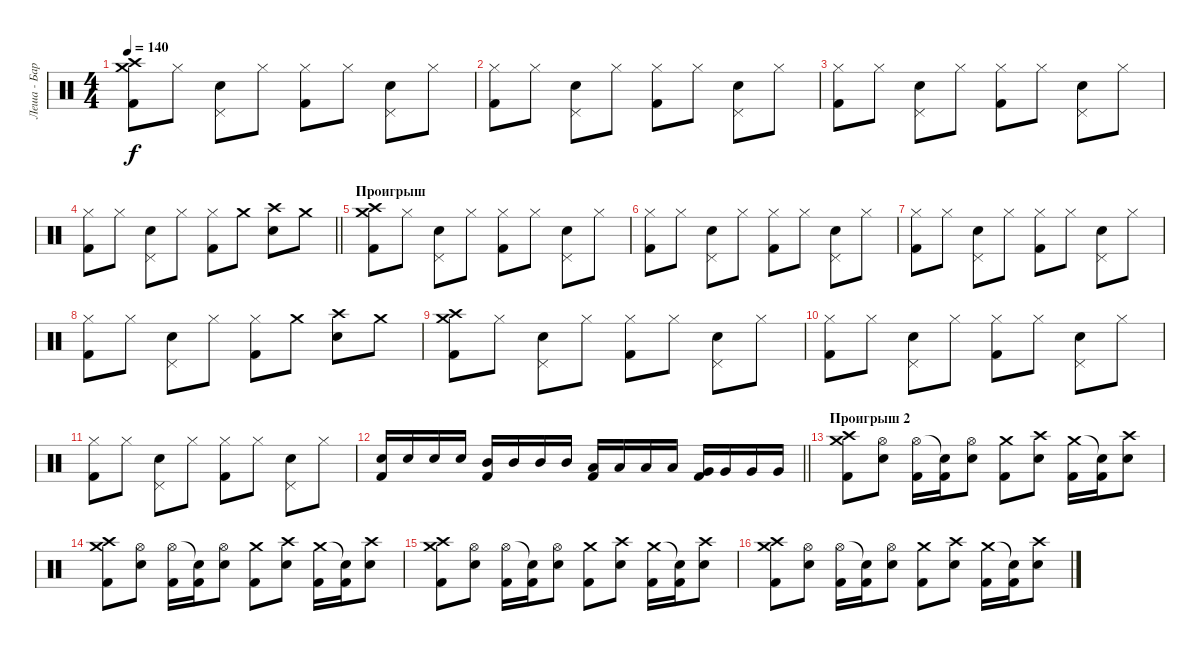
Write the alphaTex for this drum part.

\track ("Леша - Барабаны" "Леша - Бар") {instrument percussion}
\staff {score}
\articulation defaults
\ts (4 4)
\tempo 140
\clef neutral
\ks c
("Crash high (hit)" "Crash medium (hit)" "Kick (hit) 2").8{dy f} "Hi-Hat (closed)".8 ("Pedal Hi-Hat (hit)" "Snare (hit) 2").8 "Hi-Hat (closed)".8 ("Hi-Hat (closed)" "Kick (hit) 2").8 "Hi-Hat (closed)".8 ("Pedal Hi-Hat (hit)" "Snare (hit) 2").8 "Hi-Hat (closed)".8 |
("Hi-Hat (closed)" "Kick (hit) 2").8 "Hi-Hat (closed)".8 ("Pedal Hi-Hat (hit)" "Snare (hit) 2").8 "Hi-Hat (closed)".8 ("Hi-Hat (closed)" "Kick (hit) 2").8 "Hi-Hat (closed)".8 ("Pedal Hi-Hat (hit)" "Snare (hit) 2").8 "Hi-Hat (closed)".8 |
("Hi-Hat (closed)" "Kick (hit) 2").8 "Hi-Hat (closed)".8 ("Pedal Hi-Hat (hit)" "Snare (hit) 2").8 "Hi-Hat (closed)".8 ("Hi-Hat (closed)" "Kick (hit) 2").8 "Hi-Hat (closed)".8 ("Pedal Hi-Hat (hit)" "Snare (hit) 2").8 "Hi-Hat (closed)".8 |
\barLineRight lightlight
("Hi-Hat (closed)" "Kick (hit) 2").8 "Hi-Hat (closed)".8 ("Pedal Hi-Hat (hit)" "Snare (hit) 2").8 "Hi-Hat (closed)".8 ("Hi-Hat (closed)" "Kick (hit) 2").8 "Crash medium (hit)".8 ("Crash high (hit)" "Snare (hit) 2").8 "Crash medium (hit)".8 |
\section ("" "Проигрыш")
("Crash high (hit)" "Crash medium (hit)" "Kick (hit) 2").8 "Hi-Hat (closed)".8 ("Pedal Hi-Hat (hit)" "Snare (hit) 2").8 "Hi-Hat (closed)".8 ("Hi-Hat (closed)" "Kick (hit) 2").8 "Hi-Hat (closed)".8 ("Pedal Hi-Hat (hit)" "Snare (hit) 2").8 "Hi-Hat (closed)".8 |
("Hi-Hat (closed)" "Kick (hit) 2").8 "Hi-Hat (closed)".8 ("Pedal Hi-Hat (hit)" "Snare (hit) 2").8 "Hi-Hat (closed)".8 ("Hi-Hat (closed)" "Kick (hit) 2").8 "Hi-Hat (closed)".8 ("Pedal Hi-Hat (hit)" "Snare (hit) 2").8 "Hi-Hat (closed)".8 |
("Hi-Hat (closed)" "Kick (hit) 2").8 "Hi-Hat (closed)".8 ("Pedal Hi-Hat (hit)" "Snare (hit) 2").8 "Hi-Hat (closed)".8 ("Hi-Hat (closed)" "Kick (hit) 2").8 "Hi-Hat (closed)".8 ("Pedal Hi-Hat (hit)" "Snare (hit) 2").8 "Hi-Hat (closed)".8 |
("Hi-Hat (closed)" "Kick (hit) 2").8 "Hi-Hat (closed)".8 ("Pedal Hi-Hat (hit)" "Snare (hit) 2").8 "Hi-Hat (closed)".8 ("Hi-Hat (closed)" "Kick (hit) 2").8 "Crash medium (hit)".8 ("Crash high (hit)" "Snare (hit) 2").8 "Crash medium (hit)".8 |
("Crash high (hit)" "Crash medium (hit)" "Kick (hit) 2").8 "Hi-Hat (closed)".8 ("Pedal Hi-Hat (hit)" "Snare (hit) 2").8 "Hi-Hat (closed)".8 ("Hi-Hat (closed)" "Kick (hit) 2").8 "Hi-Hat (closed)".8 ("Pedal Hi-Hat (hit)" "Snare (hit) 2").8 "Hi-Hat (closed)".8 |
("Hi-Hat (closed)" "Kick (hit) 2").8 "Hi-Hat (closed)".8 ("Pedal Hi-Hat (hit)" "Snare (hit) 2").8 "Hi-Hat (closed)".8 ("Hi-Hat (closed)" "Kick (hit) 2").8 "Hi-Hat (closed)".8 ("Pedal Hi-Hat (hit)" "Snare (hit) 2").8 "Hi-Hat (closed)".8 |
("Hi-Hat (closed)" "Kick (hit) 2").8 "Hi-Hat (closed)".8 ("Pedal Hi-Hat (hit)" "Snare (hit) 2").8 "Hi-Hat (closed)".8 ("Hi-Hat (closed)" "Kick (hit) 2").8 "Hi-Hat (closed)".8 ("Pedal Hi-Hat (hit)" "Snare (hit) 2").8 "Hi-Hat (closed)".8 |
\barLineRight lightlight
("Snare (hit) 2" "Kick (hit) 2").16 "Snare (hit) 2".16 "Snare (hit) 2".16 "Snare (hit) 2".16 ("Mid Tom (hit)" "Kick (hit) 2").16 "Mid Tom (hit)".16 "Mid Tom (hit)".16 "Mid Tom (hit)".16 ("Low Tom (hit)" "Kick (hit) 2").16 "Low Tom (hit)".16 "Low Tom (hit)".16 "Low Tom (hit)".16 ("Very Low Tom (hit)" "Kick (hit) 2").16 "Very Low Tom (hit)".16 "Very Low Tom (hit)".16 "Very Low Tom (hit)".16 |
\section ("" "Проигрыш 2")
("Crash medium (hit)" "Crash high (hit)" "Kick (hit) 2").8 ("Hi-Hat (open)" "Snare (hit) 2").8 ("Hi-Hat (open)" "Kick (hit) 2").16 ("Snare (hit)"{t} "Kick (hit) 2").16 ("Hi-Hat (open)" "Snare (hit) 2").8 ("Crash medium (hit)" "Kick (hit) 2").8 ("Crash high (hit)" "Snare (hit) 2").8 ("Crash medium (hit)" "Kick (hit) 2").16 ("Snare (hit)"{t} "Kick (hit) 2").16 ("Crash high (hit)" "Snare (hit) 2").8 |
("Crash medium (hit)" "Crash high (hit)" "Kick (hit) 2").8 ("Hi-Hat (open)" "Snare (hit) 2").8 ("Hi-Hat (open)" "Kick (hit) 2").16 ("Snare (hit)"{t} "Kick (hit) 2").16 ("Hi-Hat (open)" "Snare (hit) 2").8 ("Crash medium (hit)" "Kick (hit) 2").8 ("Crash high (hit)" "Snare (hit) 2").8 ("Crash medium (hit)" "Kick (hit) 2").16 ("Snare (hit)"{t} "Kick (hit) 2").16 ("Crash high (hit)" "Snare (hit) 2").8 |
("Crash medium (hit)" "Crash high (hit)" "Kick (hit) 2").8 ("Hi-Hat (open)" "Snare (hit) 2").8 ("Hi-Hat (open)" "Kick (hit) 2").16 ("Snare (hit)"{t} "Kick (hit) 2").16 ("Hi-Hat (open)" "Snare (hit) 2").8 ("Crash medium (hit)" "Kick (hit) 2").8 ("Crash high (hit)" "Snare (hit) 2").8 ("Crash medium (hit)" "Kick (hit) 2").16 ("Snare (hit)"{t} "Kick (hit) 2").16 ("Crash high (hit)" "Snare (hit) 2").8 |
("Crash medium (hit)" "Crash high (hit)" "Kick (hit) 2").8 ("Hi-Hat (open)" "Snare (hit) 2").8 ("Hi-Hat (open)" "Kick (hit) 2").16 ("Snare (hit)"{t} "Kick (hit) 2").16 ("Hi-Hat (open)" "Snare (hit) 2").8 ("Crash medium (hit)" "Kick (hit) 2").8 ("Crash high (hit)" "Snare (hit) 2").8 ("Crash medium (hit)" "Kick (hit) 2").16 ("Snare (hit)"{t} "Kick (hit) 2").16 ("Crash high (hit)" "Snare (hit) 2").8
